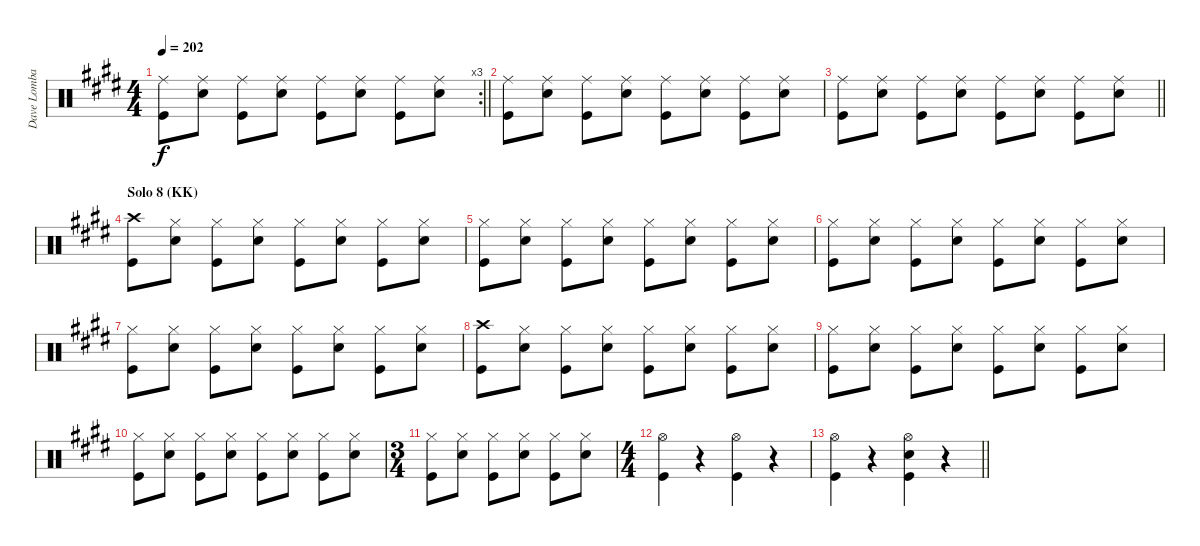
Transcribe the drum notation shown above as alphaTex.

\track ("Dave Lombardo" "Dave Lomba") {instrument percussion}
\staff {score}
\articulation defaults
\rc 3
\ts (4 4)
\tempo 202
\clef neutral
\barLineRight lightlight
\ks e
("Ride (middle)" "Kick (hit)").8{dy f} ("Ride (middle)" "Snare (hit) 2").8 ("Ride (middle)" "Kick (hit)").8 ("Ride (middle)" "Snare (hit) 2").8 ("Ride (middle)" "Kick (hit)").8 ("Ride (middle)" "Snare (hit) 2").8 ("Ride (middle)" "Kick (hit)").8 ("Ride (middle)" "Snare (hit) 2").8 |
("Ride (middle)" "Kick (hit)").8 ("Ride (middle)" "Snare (hit) 2").8 ("Ride (middle)" "Kick (hit)").8 ("Ride (middle)" "Snare (hit) 2").8 ("Ride (middle)" "Kick (hit)").8 ("Ride (middle)" "Snare (hit) 2").8 ("Ride (middle)" "Kick (hit)").8 ("Ride (middle)" "Snare (hit) 2").8 |
\barLineRight lightlight
("Ride (middle)" "Kick (hit)").8 ("Ride (middle)" "Snare (hit) 2").8 ("Ride (middle)" "Kick (hit)").8 ("Ride (middle)" "Snare (hit) 2").8 ("Ride (middle)" "Kick (hit)").8 ("Ride (middle)" "Snare (hit) 2").8 ("Ride (middle)" "Kick (hit)").8 ("Ride (middle)" "Snare (hit) 2").8 |
\section ("" "Solo 8 (KK)")
("Crash high (hit)" "Kick (hit)").8 ("Hi-Hat (closed)" "Snare (hit) 2").8 ("Hi-Hat (closed)" "Kick (hit)").8 ("Hi-Hat (closed)" "Snare (hit) 2").8 ("Hi-Hat (closed)" "Kick (hit)").8 ("Hi-Hat (closed)" "Snare (hit) 2").8 ("Hi-Hat (closed)" "Kick (hit)").8 ("Hi-Hat (closed)" "Snare (hit) 2").8 |
("Hi-Hat (closed)" "Kick (hit)").8 ("Hi-Hat (closed)" "Snare (hit) 2").8 ("Hi-Hat (closed)" "Kick (hit)").8 ("Hi-Hat (closed)" "Snare (hit) 2").8 ("Hi-Hat (closed)" "Kick (hit)").8 ("Hi-Hat (closed)" "Snare (hit) 2").8 ("Hi-Hat (closed)" "Kick (hit)").8 ("Hi-Hat (closed)" "Snare (hit) 2").8 |
("Hi-Hat (closed)" "Kick (hit)").8 ("Hi-Hat (closed)" "Snare (hit) 2").8 ("Hi-Hat (closed)" "Kick (hit)").8 ("Hi-Hat (closed)" "Snare (hit) 2").8 ("Hi-Hat (closed)" "Kick (hit)").8 ("Hi-Hat (closed)" "Snare (hit) 2").8 ("Hi-Hat (closed)" "Kick (hit)").8 ("Hi-Hat (closed)" "Snare (hit) 2").8 |
("Hi-Hat (closed)" "Kick (hit)").8 ("Hi-Hat (closed)" "Snare (hit) 2").8 ("Hi-Hat (closed)" "Kick (hit)").8 ("Hi-Hat (closed)" "Snare (hit) 2").8 ("Hi-Hat (closed)" "Kick (hit)").8 ("Hi-Hat (closed)" "Snare (hit) 2").8 ("Hi-Hat (closed)" "Kick (hit)").8 ("Hi-Hat (closed)" "Snare (hit) 2").8 |
("Crash high (hit)" "Kick (hit)").8 ("Hi-Hat (closed)" "Snare (hit) 2").8 ("Hi-Hat (closed)" "Kick (hit)").8 ("Hi-Hat (closed)" "Snare (hit) 2").8 ("Hi-Hat (closed)" "Kick (hit)").8 ("Hi-Hat (closed)" "Snare (hit) 2").8 ("Hi-Hat (closed)" "Kick (hit)").8 ("Hi-Hat (closed)" "Snare (hit) 2").8 |
("Hi-Hat (closed)" "Kick (hit)").8 ("Hi-Hat (closed)" "Snare (hit) 2").8 ("Hi-Hat (closed)" "Kick (hit)").8 ("Hi-Hat (closed)" "Snare (hit) 2").8 ("Hi-Hat (closed)" "Kick (hit)").8 ("Hi-Hat (closed)" "Snare (hit) 2").8 ("Hi-Hat (closed)" "Kick (hit)").8 ("Hi-Hat (closed)" "Snare (hit) 2").8 |
("Hi-Hat (closed)" "Kick (hit)").8 ("Hi-Hat (closed)" "Snare (hit) 2").8 ("Hi-Hat (closed)" "Kick (hit)").8 ("Hi-Hat (closed)" "Snare (hit) 2").8 ("Hi-Hat (closed)" "Kick (hit)").8 ("Hi-Hat (closed)" "Snare (hit) 2").8 ("Hi-Hat (closed)" "Kick (hit)").8 ("Hi-Hat (closed)" "Snare (hit) 2").8 |
\ts (3 4)
("Hi-Hat (closed)" "Kick (hit)").8 ("Hi-Hat (closed)" "Snare (hit) 2").8 ("Hi-Hat (closed)" "Kick (hit)").8 ("Hi-Hat (closed)" "Snare (hit) 2").8 ("Hi-Hat (closed)" "Kick (hit)").8 ("Hi-Hat (closed)" "Snare (hit) 2").8 |
\ts (4 4)
("Hi-Hat (open)" "Kick (hit)").4 r.4 ("Hi-Hat (open)" "Kick (hit)").4 r.4 |
\barLineRight lightlight
("Hi-Hat (open)" "Kick (hit)").4 r.4 ("Hi-Hat (open)" "Snare (hit) 2" "Kick (hit)").4 r.4
